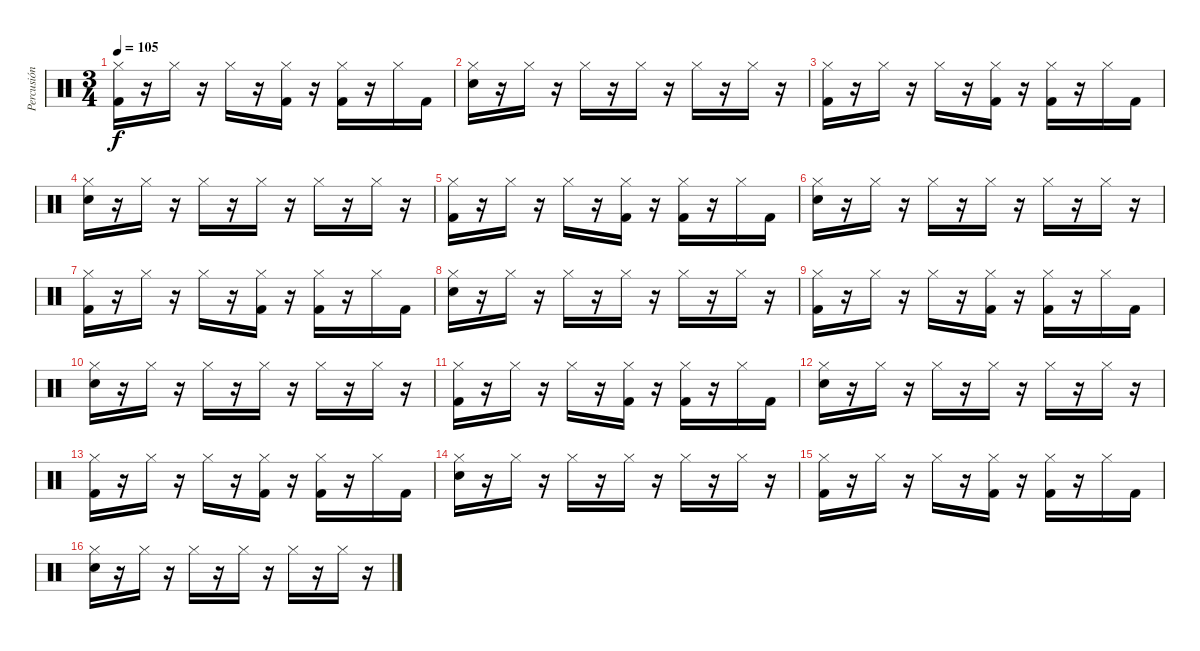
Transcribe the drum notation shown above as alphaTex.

\track ("Percusión" "Percusión") {instrument percussion}
\staff {score}
\articulation defaults
\ts (3 4)
\tempo 105
\clef neutral
\ks c
("Hi-Hat (closed)" "Kick (hit) 2").16{dy f} r.16 "Hi-Hat (closed)".16 r.16 "Hi-Hat (closed)".16 r.16 ("Hi-Hat (closed)" "Kick (hit) 2").16 r.16 ("Hi-Hat (closed)" "Kick (hit) 2").16 r.16 "Hi-Hat (closed)".16 "Kick (hit) 2".16 |
("Hi-Hat (closed)" "Snare (hit) 2").16 r.16 "Hi-Hat (closed)".16 r.16 "Hi-Hat (closed)".16 r.16 "Hi-Hat (closed)".16 r.16 "Hi-Hat (closed)".16 r.16 "Hi-Hat (closed)".16 r.16 |
("Hi-Hat (closed)" "Kick (hit) 2").16 r.16 "Hi-Hat (closed)".16 r.16 "Hi-Hat (closed)".16 r.16 ("Hi-Hat (closed)" "Kick (hit) 2").16 r.16 ("Hi-Hat (closed)" "Kick (hit) 2").16 r.16 "Hi-Hat (closed)".16 "Kick (hit) 2".16 |
("Hi-Hat (closed)" "Snare (hit) 2").16 r.16 "Hi-Hat (closed)".16 r.16 "Hi-Hat (closed)".16 r.16 "Hi-Hat (closed)".16 r.16 "Hi-Hat (closed)".16 r.16 "Hi-Hat (closed)".16 r.16 |
("Hi-Hat (closed)" "Kick (hit) 2").16 r.16 "Hi-Hat (closed)".16 r.16 "Hi-Hat (closed)".16 r.16 ("Hi-Hat (closed)" "Kick (hit) 2").16 r.16 ("Hi-Hat (closed)" "Kick (hit) 2").16 r.16 "Hi-Hat (closed)".16 "Kick (hit) 2".16 |
("Hi-Hat (closed)" "Snare (hit) 2").16 r.16 "Hi-Hat (closed)".16 r.16 "Hi-Hat (closed)".16 r.16 "Hi-Hat (closed)".16 r.16 "Hi-Hat (closed)".16 r.16 "Hi-Hat (closed)".16 r.16 |
("Hi-Hat (closed)" "Kick (hit) 2").16 r.16 "Hi-Hat (closed)".16 r.16 "Hi-Hat (closed)".16 r.16 ("Hi-Hat (closed)" "Kick (hit) 2").16 r.16 ("Hi-Hat (closed)" "Kick (hit) 2").16 r.16 "Hi-Hat (closed)".16 "Kick (hit) 2".16 |
("Hi-Hat (closed)" "Snare (hit) 2").16 r.16 "Hi-Hat (closed)".16 r.16 "Hi-Hat (closed)".16 r.16 "Hi-Hat (closed)".16 r.16 "Hi-Hat (closed)".16 r.16 "Hi-Hat (closed)".16 r.16 |
("Hi-Hat (closed)" "Kick (hit) 2").16 r.16 "Hi-Hat (closed)".16 r.16 "Hi-Hat (closed)".16 r.16 ("Hi-Hat (closed)" "Kick (hit) 2").16 r.16 ("Hi-Hat (closed)" "Kick (hit) 2").16 r.16 "Hi-Hat (closed)".16 "Kick (hit) 2".16 |
("Hi-Hat (closed)" "Snare (hit) 2").16 r.16 "Hi-Hat (closed)".16 r.16 "Hi-Hat (closed)".16 r.16 "Hi-Hat (closed)".16 r.16 "Hi-Hat (closed)".16 r.16 "Hi-Hat (closed)".16 r.16 |
("Hi-Hat (closed)" "Kick (hit) 2").16 r.16 "Hi-Hat (closed)".16 r.16 "Hi-Hat (closed)".16 r.16 ("Hi-Hat (closed)" "Kick (hit) 2").16 r.16 ("Hi-Hat (closed)" "Kick (hit) 2").16 r.16 "Hi-Hat (closed)".16 "Kick (hit) 2".16 |
("Hi-Hat (closed)" "Snare (hit) 2").16 r.16 "Hi-Hat (closed)".16 r.16 "Hi-Hat (closed)".16 r.16 "Hi-Hat (closed)".16 r.16 "Hi-Hat (closed)".16 r.16 "Hi-Hat (closed)".16 r.16 |
("Hi-Hat (closed)" "Kick (hit) 2").16 r.16 "Hi-Hat (closed)".16 r.16 "Hi-Hat (closed)".16 r.16 ("Hi-Hat (closed)" "Kick (hit) 2").16 r.16 ("Hi-Hat (closed)" "Kick (hit) 2").16 r.16 "Hi-Hat (closed)".16 "Kick (hit) 2".16 |
("Hi-Hat (closed)" "Snare (hit) 2").16 r.16 "Hi-Hat (closed)".16 r.16 "Hi-Hat (closed)".16 r.16 "Hi-Hat (closed)".16 r.16 "Hi-Hat (closed)".16 r.16 "Hi-Hat (closed)".16 r.16 |
("Hi-Hat (closed)" "Kick (hit) 2").16 r.16 "Hi-Hat (closed)".16 r.16 "Hi-Hat (closed)".16 r.16 ("Hi-Hat (closed)" "Kick (hit) 2").16 r.16 ("Hi-Hat (closed)" "Kick (hit) 2").16 r.16 "Hi-Hat (closed)".16 "Kick (hit) 2".16 |
("Hi-Hat (closed)" "Snare (hit) 2").16 r.16 "Hi-Hat (closed)".16 r.16 "Hi-Hat (closed)".16 r.16 "Hi-Hat (closed)".16 r.16 "Hi-Hat (closed)".16 r.16 "Hi-Hat (closed)".16 r.16
